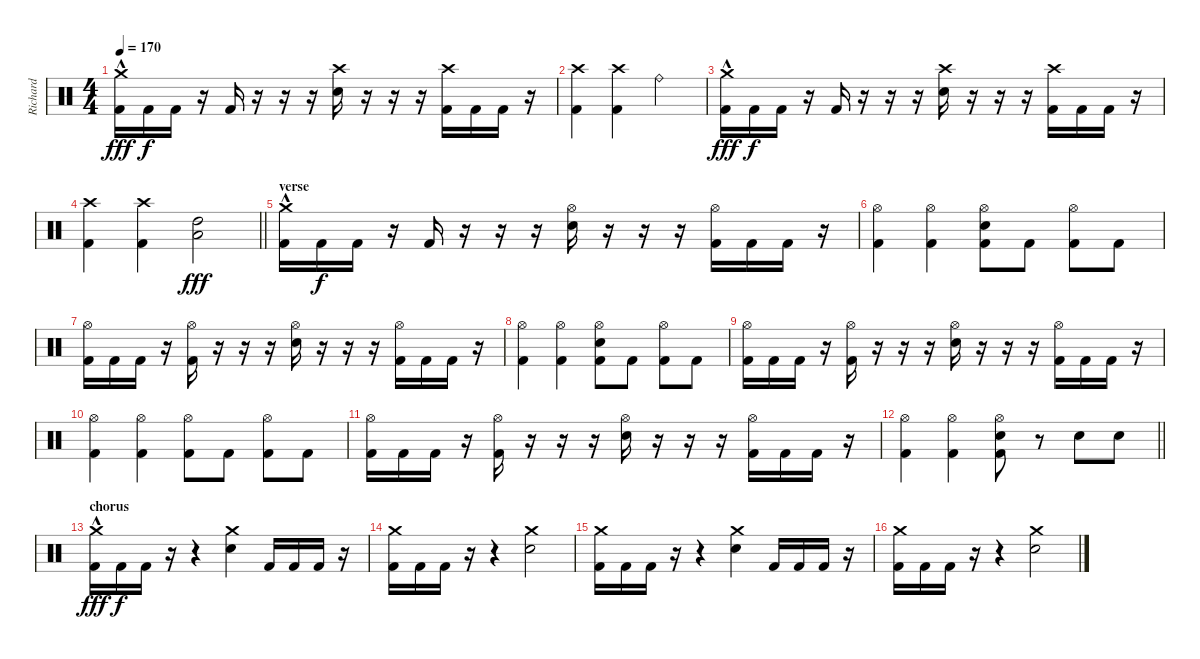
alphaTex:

\track ("Richard" "Richard") {instrument percussion}
\staff {score}
\articulation defaults
\ts (4 4)
\tempo 170
\clef neutral
\ks c
("Crash medium (hit)"{hac} "Kick (hit) 2").16{dy fff} "Kick (hit) 2".16{dy f} "Kick (hit) 2".16 r.16 "Kick (hit) 2".16 r.16 r.16 r.16 ("Crash high (hit)" "Electric Snare (hit)").16 r.16 r.16 r.16 ("Crash high (hit)" "Kick (hit) 2").16 "Kick (hit) 2".16 "Kick (hit) 2".16 r.16 |
("Crash high (hit)" "Kick (hit) 2").4 ("Crash high (hit)" "Kick (hit) 2").4 "Ride (bell)".2 |
("Crash medium (hit)"{hac} "Kick (hit) 2").16{dy fff} "Kick (hit) 2".16{dy f} "Kick (hit) 2".16 r.16 "Kick (hit) 2".16 r.16 r.16 r.16 ("Crash high (hit)" "Electric Snare (hit)").16 r.16 r.16 r.16 ("Crash high (hit)" "Kick (hit) 2").16 "Kick (hit) 2".16 "Kick (hit) 2".16 r.16 |
\barLineRight lightlight
("Crash high (hit)" "Kick (hit) 2").4 ("Crash high (hit)" "Kick (hit) 2").4 ("Low Tom (hit)" "High Tom (hit)").2{dy fff} |
\section ("" "verse")
("Crash medium (hit)"{hac} "Kick (hit) 2").16 "Kick (hit) 2".16{dy f} "Kick (hit) 2".16 r.16 "Kick (hit) 2".16 r.16 r.16 r.16 ("Hi-Hat (open)" "Electric Snare (hit)").16 r.16 r.16 r.16 ("Hi-Hat (open)" "Kick (hit) 2").16 "Kick (hit) 2".16 "Kick (hit) 2".16 r.16 |
("Hi-Hat (open)" "Kick (hit) 2").4 ("Hi-Hat (open)" "Kick (hit) 2").4 ("Hi-Hat (open)" "Electric Snare (hit)" "Kick (hit) 2").8 "Kick (hit) 2".8 ("Hi-Hat (open)" "Kick (hit) 2").8 "Kick (hit) 2".8 |
("Hi-Hat (open)" "Kick (hit) 2").16 "Kick (hit) 2".16 "Kick (hit) 2".16 r.16 ("Hi-Hat (open)" "Kick (hit) 2").16 r.16 r.16 r.16 ("Hi-Hat (open)" "Electric Snare (hit)").16 r.16 r.16 r.16 ("Hi-Hat (open)" "Kick (hit) 2").16 "Kick (hit) 2".16 "Kick (hit) 2".16 r.16 |
("Hi-Hat (open)" "Kick (hit) 2").4 ("Hi-Hat (open)" "Kick (hit) 2").4 ("Hi-Hat (open)" "Electric Snare (hit)" "Kick (hit) 2").8 "Kick (hit) 2".8 ("Hi-Hat (open)" "Kick (hit) 2").8 "Kick (hit) 2".8 |
("Hi-Hat (open)" "Kick (hit) 2").16 "Kick (hit) 2".16 "Kick (hit) 2".16 r.16 ("Hi-Hat (open)" "Kick (hit) 2").16 r.16 r.16 r.16 ("Hi-Hat (open)" "Electric Snare (hit)").16 r.16 r.16 r.16 ("Hi-Hat (open)" "Kick (hit) 2").16 "Kick (hit) 2".16 "Kick (hit) 2".16 r.16 |
("Hi-Hat (open)" "Kick (hit) 2").4 ("Hi-Hat (open)" "Kick (hit) 2").4 ("Hi-Hat (open)" "Kick (hit) 2").8 "Kick (hit) 2".8 ("Hi-Hat (open)" "Kick (hit) 2").8 "Kick (hit) 2".8 |
("Hi-Hat (open)" "Kick (hit) 2").16 "Kick (hit) 2".16 "Kick (hit) 2".16 r.16 ("Hi-Hat (open)" "Kick (hit) 2").16 r.16 r.16 r.16 ("Hi-Hat (open)" "Electric Snare (hit)").16 r.16 r.16 r.16 ("Hi-Hat (open)" "Kick (hit) 2").16 "Kick (hit) 2".16 "Kick (hit) 2".16 r.16 |
\barLineRight lightlight
("Hi-Hat (open)" "Kick (hit) 2").4 ("Hi-Hat (open)" "Kick (hit) 2").4 ("Hi-Hat (open)" "Electric Snare (hit)" "Kick (hit) 2").8 r.8 "Electric Snare (hit)".8 "Electric Snare (hit)".8 |
\section ("" "chorus")
("Crash medium (hit)"{hac} "Kick (hit) 2").16{dy fff} "Kick (hit) 2".16{dy f} "Kick (hit) 2".16 r.16 r.4 ("Crash medium (hit)" "Electric Snare (hit)").4 "Kick (hit) 2".16 "Kick (hit) 2".16 "Kick (hit) 2".16 r.16 |
("Crash medium (hit)" "Kick (hit) 2").16 "Kick (hit) 2".16 "Kick (hit) 2".16 r.16 r.4 ("Crash medium (hit)" "Electric Snare (hit)").2 |
("Crash medium (hit)" "Kick (hit) 2").16 "Kick (hit) 2".16 "Kick (hit) 2".16 r.16 r.4 ("Crash medium (hit)" "Electric Snare (hit)").4 "Kick (hit) 2".16 "Kick (hit) 2".16 "Kick (hit) 2".16 r.16 |
("Crash medium (hit)" "Kick (hit) 2").16 "Kick (hit) 2".16 "Kick (hit) 2".16 r.16 r.4 ("Crash medium (hit)" "Electric Snare (hit)").2
